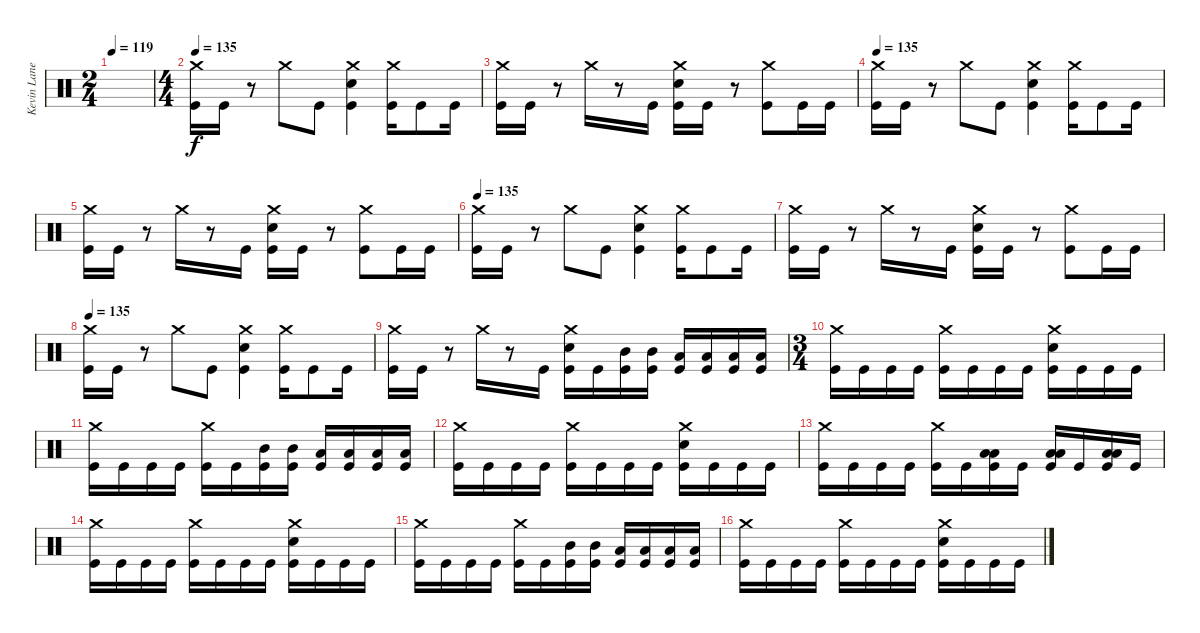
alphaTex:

\track ("Kevin Lane" "Kevin Lane") {instrument percussion}
\staff {score}
\articulation defaults
\ts (2 4)
\tempo 119
\clef neutral
\ks c
|
\ts (4 4)
\tempo 134
\tempo 135
("Crash medium (hit)" "Kick (hit)").16 "Kick (hit)".16 r.8 "Crash medium (hit)".8 "Kick (hit)".8 ("Crash medium (hit)" "Snare (hit) 2" "Kick (hit)").4 ("Crash medium (hit)" "Kick (hit)").16 "Kick (hit)".8 "Kick (hit)".16 |
("Crash medium (hit)" "Kick (hit)").16 "Kick (hit)".16 r.8 "Crash medium (hit)".16 r.8 "Kick (hit)".16 ("Crash medium (hit)" "Snare (hit) 2" "Kick (hit)").16 "Kick (hit)".16 r.8 ("Crash medium (hit)" "Kick (hit)").8 "Kick (hit)".16 "Kick (hit)".16 |
\tempo 135
("Crash medium (hit)" "Kick (hit)").16 "Kick (hit)".16 r.8 "Crash medium (hit)".8 "Kick (hit)".8 ("Crash medium (hit)" "Snare (hit) 2" "Kick (hit)").4 ("Crash medium (hit)" "Kick (hit)").16 "Kick (hit)".8 "Kick (hit)".16 |
("Crash medium (hit)" "Kick (hit)").16 "Kick (hit)".16 r.8 "Crash medium (hit)".16 r.8 "Kick (hit)".16 ("Crash medium (hit)" "Snare (hit) 2" "Kick (hit)").16 "Kick (hit)".16 r.8 ("Crash medium (hit)" "Kick (hit)").8 "Kick (hit)".16 "Kick (hit)".16 |
\tempo 135
("Crash medium (hit)" "Kick (hit)").16 "Kick (hit)".16 r.8 "Crash medium (hit)".8 "Kick (hit)".8 ("Crash medium (hit)" "Snare (hit) 2" "Kick (hit)").4 ("Crash medium (hit)" "Kick (hit)").16 "Kick (hit)".8 "Kick (hit)".16 |
("Crash medium (hit)" "Kick (hit)").16 "Kick (hit)".16 r.8 "Crash medium (hit)".16 r.8 "Kick (hit)".16 ("Crash medium (hit)" "Snare (hit) 2" "Kick (hit)").16 "Kick (hit)".16 r.8 ("Crash medium (hit)" "Kick (hit)").8 "Kick (hit)".16 "Kick (hit)".16 |
\tempo 135
("Crash medium (hit)" "Kick (hit)").16 "Kick (hit)".16 r.8 "Crash medium (hit)".8 "Kick (hit)".8 ("Crash medium (hit)" "Snare (hit) 2" "Kick (hit)").4 ("Crash medium (hit)" "Kick (hit)").16 "Kick (hit)".8 "Kick (hit)".16 |
("Crash medium (hit)" "Kick (hit)").16 "Kick (hit)".16 r.8 "Crash medium (hit)".16 r.8 "Kick (hit)".16 ("Crash medium (hit)" "Snare (hit) 2" "Kick (hit)").16 "Kick (hit)".16 ("Mid Tom (hit)" "Kick (hit)").16 ("Mid Tom (hit)" "Kick (hit)").16 ("Low Tom (hit)" "Kick (hit)").16 ("Low Tom (hit)" "Kick (hit)").16 ("Low Floor Tom (hit)" "Kick (hit)").16 ("Low Floor Tom (hit)" "Kick (hit)").16 |
\ts (3 4)
("Crash medium (hit)" "Kick (hit)").16 "Kick (hit)".16 "Kick (hit)".16 "Kick (hit)".16 ("Crash medium (hit)" "Kick (hit)").16 "Kick (hit)".16 "Kick (hit)".16 "Kick (hit)".16 ("Crash medium (hit)" "Snare (hit) 2" "Kick (hit)").16 "Kick (hit)".16 "Kick (hit)".16 "Kick (hit)".16 |
("Crash medium (hit)" "Kick (hit)").16 "Kick (hit)".16 "Kick (hit)".16 "Kick (hit)".16 ("Crash medium (hit)" "Kick (hit)").16 "Kick (hit)".16 ("Mid Tom (hit)" "Kick (hit)").16 ("Mid Tom (hit)" "Kick (hit)").16 ("Low Tom (hit)" "Kick (hit)").16 ("Low Tom (hit)" "Kick (hit)").16 ("Low Floor Tom (hit)" "Kick (hit)").16 ("Low Floor Tom (hit)" "Kick (hit)").16 |
("Crash medium (hit)" "Kick (hit)").16 "Kick (hit)".16 "Kick (hit)".16 "Kick (hit)".16 ("Crash medium (hit)" "Kick (hit)").16 "Kick (hit)".16 "Kick (hit)".16 "Kick (hit)".16 ("Crash medium (hit)" "Snare (hit) 2" "Kick (hit)").16 "Kick (hit)".16 "Kick (hit)".16 "Kick (hit)".16 |
("Crash medium (hit)" "Kick (hit)").16 "Kick (hit)".16 "Kick (hit)".16 "Kick (hit)".16 ("Crash medium (hit)" "Kick (hit)").16 "Kick (hit)".16 ("Low Tom (hit)" "Low Floor Tom (hit)" "Kick (hit)").16 "Kick (hit)".16 ("Low Tom (hit)" "Low Floor Tom (hit)" "Kick (hit)").16 "Kick (hit)".16 ("Low Tom (hit)" "Low Floor Tom (hit)" "Kick (hit)").16 "Kick (hit)".16 |
("Crash medium (hit)" "Kick (hit)").16 "Kick (hit)".16 "Kick (hit)".16 "Kick (hit)".16 ("Crash medium (hit)" "Kick (hit)").16 "Kick (hit)".16 "Kick (hit)".16 "Kick (hit)".16 ("Crash medium (hit)" "Snare (hit) 2" "Kick (hit)").16 "Kick (hit)".16 "Kick (hit)".16 "Kick (hit)".16 |
("Crash medium (hit)" "Kick (hit)").16 "Kick (hit)".16 "Kick (hit)".16 "Kick (hit)".16 ("Crash medium (hit)" "Kick (hit)").16 "Kick (hit)".16 ("Mid Tom (hit)" "Kick (hit)").16 ("Mid Tom (hit)" "Kick (hit)").16 ("Low Tom (hit)" "Kick (hit)").16 ("Low Tom (hit)" "Kick (hit)").16 ("Low Floor Tom (hit)" "Kick (hit)").16 ("Low Floor Tom (hit)" "Kick (hit)").16 |
("Crash medium (hit)" "Kick (hit)").16 "Kick (hit)".16 "Kick (hit)".16 "Kick (hit)".16 ("Crash medium (hit)" "Kick (hit)").16 "Kick (hit)".16 "Kick (hit)".16 "Kick (hit)".16 ("Crash medium (hit)" "Snare (hit) 2" "Kick (hit)").16 "Kick (hit)".16 "Kick (hit)".16 "Kick (hit)".16
